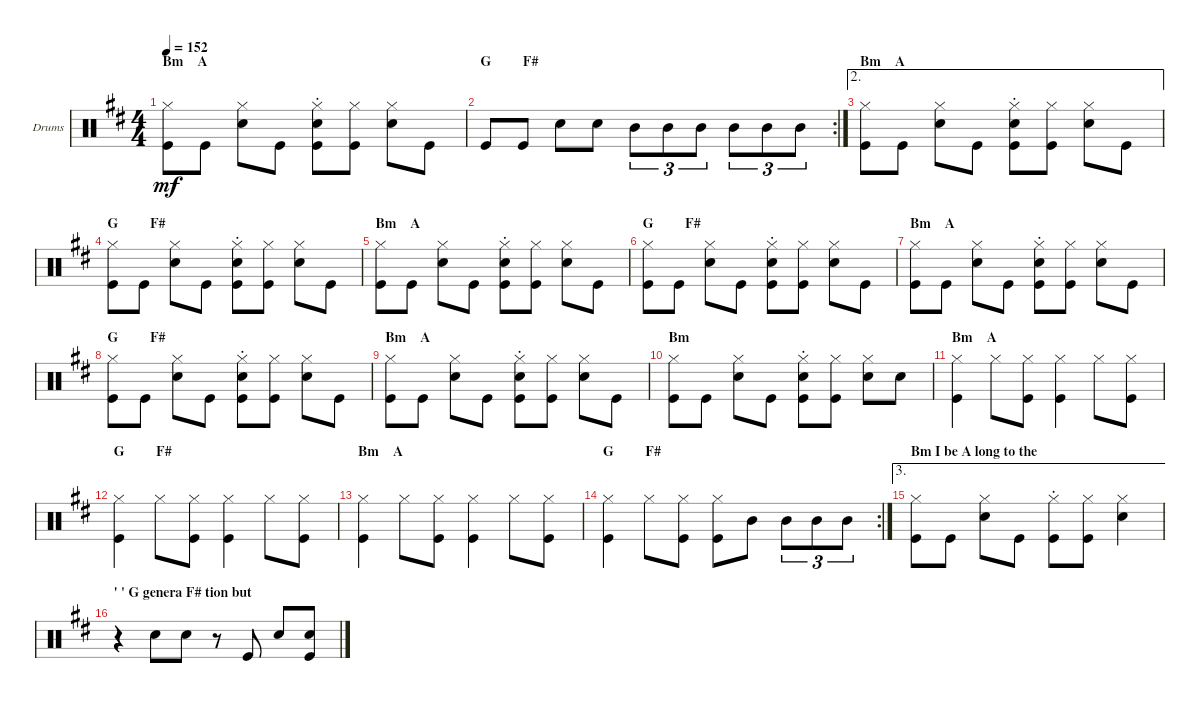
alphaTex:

\bracketExtendMode groupsimilarinstruments
\firstSystemTrackNameOrientation horizontal
\otherSystemsTrackNameOrientation horizontal
\track ("Drums - Marc Bell" "Drums") {instrument percussion}
\staff {score}
\articulation defaults
\ts (4 4)
\section ("" "Bm    A")
\tempo 152
\clef neutral
\ks d
("Kick (hit)" "Hi-Hat (closed)").8{dy mf} "Kick (hit)".8 ("Snare (hit) 2" "Hi-Hat (closed)").8 "Kick (hit)".8 ("Snare (hit) 2" "Kick (hit)" "Hi-Hat (closed)"{st}).8 ("Kick (hit)" "Hi-Hat (closed)").8 ("Snare (hit) 2" "Hi-Hat (closed)").8 "Kick (hit)".8 |
\rc 2
\section ("" "G         F#")
"Kick (hit)".8 "Kick (hit)".8 "Snare (hit) 2".8 "Snare (hit) 2".8 "Mid Tom (hit)".8{tu (3 2)} "Mid Tom (hit)".8{tu (3 2)} "Mid Tom (hit)".8{tu (3 2)} "Mid Tom (hit)".8{tu (3 2)} "Mid Tom (hit)".8{tu (3 2)} "Mid Tom (hit)".8{tu (3 2)} |
\ae 2
\section ("" "Bm    A")
("Kick (hit)" "Hi-Hat (closed)").8 "Kick (hit)".8 ("Snare (hit) 2" "Hi-Hat (closed)").8 "Kick (hit)".8 ("Snare (hit) 2" "Kick (hit)" "Hi-Hat (closed)"{st}).8 ("Kick (hit)" "Hi-Hat (closed)").8 ("Snare (hit) 2" "Hi-Hat (closed)").8 "Kick (hit)".8 |
\section ("" "G         F#")
("Kick (hit)" "Hi-Hat (closed)").8 "Kick (hit)".8 ("Snare (hit) 2" "Hi-Hat (closed)").8 "Kick (hit)".8 ("Snare (hit) 2" "Kick (hit)" "Hi-Hat (closed)"{st}).8 ("Kick (hit)" "Hi-Hat (closed)").8 ("Snare (hit) 2" "Hi-Hat (closed)").8 "Kick (hit)".8 |
\section ("" "Bm    A")
("Kick (hit)" "Hi-Hat (closed)").8 "Kick (hit)".8 ("Snare (hit) 2" "Hi-Hat (closed)").8 "Kick (hit)".8 ("Snare (hit) 2" "Kick (hit)" "Hi-Hat (closed)"{st}).8 ("Kick (hit)" "Hi-Hat (closed)").8 ("Snare (hit) 2" "Hi-Hat (closed)").8 "Kick (hit)".8 |
\section ("" "G         F#")
("Kick (hit)" "Hi-Hat (closed)").8 "Kick (hit)".8 ("Snare (hit) 2" "Hi-Hat (closed)").8 "Kick (hit)".8 ("Snare (hit) 2" "Kick (hit)" "Hi-Hat (closed)"{st}).8 ("Kick (hit)" "Hi-Hat (closed)").8 ("Snare (hit) 2" "Hi-Hat (closed)").8 "Kick (hit)".8 |
\section ("" "Bm    A")
("Kick (hit)" "Hi-Hat (closed)").8 "Kick (hit)".8 ("Snare (hit) 2" "Hi-Hat (closed)").8 "Kick (hit)".8 ("Snare (hit) 2" "Kick (hit)" "Hi-Hat (closed)"{st}).8 ("Kick (hit)" "Hi-Hat (closed)").8 ("Snare (hit) 2" "Hi-Hat (closed)").8 "Kick (hit)".8 |
\section ("" "G         F#")
("Kick (hit)" "Hi-Hat (closed)").8 "Kick (hit)".8 ("Snare (hit) 2" "Hi-Hat (closed)").8 "Kick (hit)".8 ("Snare (hit) 2" "Kick (hit)" "Hi-Hat (closed)"{st}).8 ("Kick (hit)" "Hi-Hat (closed)").8 ("Snare (hit) 2" "Hi-Hat (closed)").8 "Kick (hit)".8 |
\section ("" "Bm    A")
("Kick (hit)" "Hi-Hat (closed)").8 "Kick (hit)".8 ("Snare (hit) 2" "Hi-Hat (closed)").8 "Kick (hit)".8 ("Snare (hit) 2" "Kick (hit)" "Hi-Hat (closed)"{st}).8 ("Kick (hit)" "Hi-Hat (closed)").8 ("Snare (hit) 2" "Hi-Hat (closed)").8 "Kick (hit)".8 |
\section ("" "Bm")
("Kick (hit)" "Hi-Hat (closed)").8 "Kick (hit)".8 ("Snare (hit) 2" "Hi-Hat (closed)").8 "Kick (hit)".8 ("Snare (hit) 2" "Kick (hit)" "Hi-Hat (closed)"{st}).8 ("Kick (hit)" "Hi-Hat (closed)").8 ("Snare (hit) 2" "Hi-Hat (closed)").8 "Snare (hit) 2".8 |
\section ("" "Bm    A")
("Kick (hit)" "Hi-Hat (closed)").4 "Hi-Hat (closed)".8 ("Kick (hit)" "Hi-Hat (closed)").8 ("Kick (hit)" "Hi-Hat (closed)").4 "Hi-Hat (closed)".8 ("Kick (hit)" "Hi-Hat (closed)").8 |
\section ("" "G         F#")
("Kick (hit)" "Hi-Hat (closed)").4 "Hi-Hat (closed)".8 ("Kick (hit)" "Hi-Hat (closed)").8 ("Kick (hit)" "Hi-Hat (closed)").4 "Hi-Hat (closed)".8 ("Kick (hit)" "Hi-Hat (closed)").8 |
\section ("" "Bm    A")
("Kick (hit)" "Hi-Hat (closed)").4 "Hi-Hat (closed)".8 ("Kick (hit)" "Hi-Hat (closed)").8 ("Kick (hit)" "Hi-Hat (closed)").4 "Hi-Hat (closed)".8 ("Kick (hit)" "Hi-Hat (closed)").8 |
\rc 2
\section ("" "G         F#")
("Kick (hit)" "Hi-Hat (closed)").4 "Hi-Hat (closed)".8 ("Kick (hit)" "Hi-Hat (closed)").8 ("Kick (hit)" "Hi-Hat (closed)").8 "Mid Tom (hit)".8 "Mid Tom (hit)".8{tu (3 2)} "Mid Tom (hit)".8{tu (3 2)} "Mid Tom (hit)".8{tu (3 2)} |
\ae 3
\section ("" "Bm I be A long to the")
("Kick (hit)" "Hi-Hat (closed)").8 "Kick (hit)".8 ("Snare (hit) 2" "Hi-Hat (closed)").8 "Kick (hit)".8 ("Kick (hit)" "Hi-Hat (closed)"{st}).8 ("Kick (hit)" "Hi-Hat (closed)").8 ("Snare (hit) 2" "Hi-Hat (closed)").4 |
\section ("" "' ' G genera F# tion but")
r.4 "Snare (hit) 2".8 "Snare (hit) 2".8 r.8 "Kick (hit)".8 "Snare (hit) 2".8 ("Snare (hit) 2" "Kick (hit)").8
